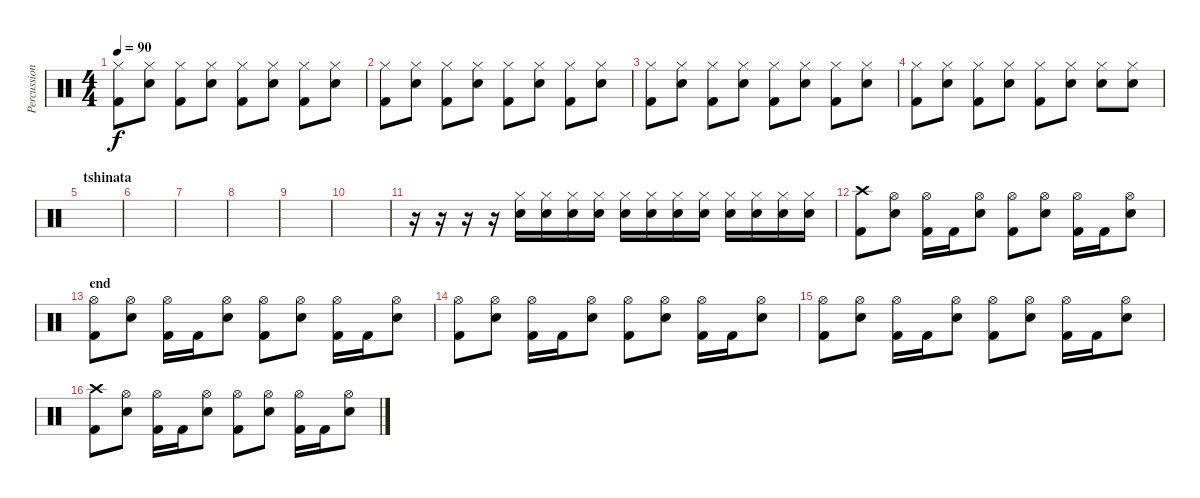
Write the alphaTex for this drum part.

\track ("Percussion" "Percussion") {instrument percussion}
\staff {score}
\articulation defaults
\ts (4 4)
\tempo 90
\clef neutral
\ks c
("Kick (hit) 2" "Hi-Hat (closed)").8{dy f} ("Snare (hit) 2" "Hi-Hat (closed)").8 ("Kick (hit) 2" "Hi-Hat (closed)").8 ("Snare (hit) 2" "Hi-Hat (closed)").8 ("Kick (hit) 2" "Hi-Hat (closed)").8 ("Snare (hit) 2" "Hi-Hat (closed)").8 ("Kick (hit) 2" "Hi-Hat (closed)").8 ("Snare (hit) 2" "Hi-Hat (closed)").8 |
("Kick (hit) 2" "Hi-Hat (closed)").8 ("Snare (hit) 2" "Hi-Hat (closed)").8 ("Kick (hit) 2" "Hi-Hat (closed)").8 ("Snare (hit) 2" "Hi-Hat (closed)").8 ("Kick (hit) 2" "Hi-Hat (closed)").8 ("Snare (hit) 2" "Hi-Hat (closed)").8 ("Kick (hit) 2" "Hi-Hat (closed)").8 ("Snare (hit) 2" "Hi-Hat (closed)").8 |
("Kick (hit) 2" "Hi-Hat (closed)").8 ("Snare (hit) 2" "Hi-Hat (closed)").8 ("Kick (hit) 2" "Hi-Hat (closed)").8 ("Snare (hit) 2" "Hi-Hat (closed)").8 ("Kick (hit) 2" "Hi-Hat (closed)").8 ("Snare (hit) 2" "Hi-Hat (closed)").8 ("Kick (hit) 2" "Hi-Hat (closed)").8 ("Snare (hit) 2" "Hi-Hat (closed)").8 |
("Kick (hit) 2" "Hi-Hat (closed)").8 ("Snare (hit) 2" "Hi-Hat (closed)").8 ("Kick (hit) 2" "Hi-Hat (closed)").8 ("Snare (hit) 2" "Hi-Hat (closed)").8 ("Kick (hit) 2" "Hi-Hat (closed)").8 ("Snare (hit) 2" "Hi-Hat (closed)").8 ("Hi-Hat (closed)" "Snare (hit) 2").8 ("Snare (hit) 2" "Hi-Hat (closed)").8 |
\section ("" "tshinata")
|
|
|
|
|
|
r.16 r.16 r.16 r.16 ("Snare (hit) 2" "Hi-Hat (closed)").16 ("Snare (hit) 2" "Hi-Hat (closed)").16 ("Snare (hit) 2" "Hi-Hat (closed)").16 ("Snare (hit) 2" "Hi-Hat (closed)").16 ("Snare (hit) 2" "Hi-Hat (closed)").16 ("Snare (hit) 2" "Hi-Hat (closed)").16 ("Snare (hit) 2" "Hi-Hat (closed)").16 ("Snare (hit) 2" "Hi-Hat (closed)").16 ("Snare (hit) 2" "Hi-Hat (closed)").16 ("Snare (hit) 2" "Hi-Hat (closed)").16 ("Snare (hit) 2" "Hi-Hat (closed)").16 ("Snare (hit) 2" "Hi-Hat (closed)").16 |
("Kick (hit) 2" "Crash high (hit)").8 ("Snare (hit) 2" "Hi-Hat (open)").8 ("Kick (hit) 2" "Hi-Hat (open)").16 "Kick (hit) 2".16 ("Snare (hit) 2" "Hi-Hat (open)").8 ("Kick (hit) 2" "Hi-Hat (open)").8 ("Snare (hit) 2" "Hi-Hat (open)").8 ("Kick (hit) 2" "Hi-Hat (open)").16 "Kick (hit) 2".16 ("Snare (hit) 2" "Hi-Hat (open)").8 |
\section ("" "end")
("Kick (hit) 2" "Hi-Hat (open)").8 ("Snare (hit) 2" "Hi-Hat (open)").8 ("Kick (hit) 2" "Hi-Hat (open)").16 "Kick (hit) 2".16 ("Snare (hit) 2" "Hi-Hat (open)").8 ("Kick (hit) 2" "Hi-Hat (open)").8 ("Snare (hit) 2" "Hi-Hat (open)").8 ("Kick (hit) 2" "Hi-Hat (open)").16 "Kick (hit) 2".16 ("Snare (hit) 2" "Hi-Hat (open)").8 |
("Kick (hit) 2" "Hi-Hat (open)").8 ("Snare (hit) 2" "Hi-Hat (open)").8 ("Kick (hit) 2" "Hi-Hat (open)").16 "Kick (hit) 2".16 ("Snare (hit) 2" "Hi-Hat (open)").8 ("Kick (hit) 2" "Hi-Hat (open)").8 ("Snare (hit) 2" "Hi-Hat (open)").8 ("Kick (hit) 2" "Hi-Hat (open)").16 "Kick (hit) 2".16 ("Snare (hit) 2" "Hi-Hat (open)").8 |
("Kick (hit) 2" "Hi-Hat (open)").8 ("Snare (hit) 2" "Hi-Hat (open)").8 ("Kick (hit) 2" "Hi-Hat (open)").16 "Kick (hit) 2".16 ("Snare (hit) 2" "Hi-Hat (open)").8 ("Kick (hit) 2" "Hi-Hat (open)").8 ("Snare (hit) 2" "Hi-Hat (open)").8 ("Kick (hit) 2" "Hi-Hat (open)").16 "Kick (hit) 2".16 ("Snare (hit) 2" "Hi-Hat (open)").8 |
("Kick (hit) 2" "Crash high (hit)").8 ("Snare (hit) 2" "Hi-Hat (open)").8 ("Kick (hit) 2" "Hi-Hat (open)").16 "Kick (hit) 2".16 ("Snare (hit) 2" "Hi-Hat (open)").8 ("Kick (hit) 2" "Hi-Hat (open)").8 ("Snare (hit) 2" "Hi-Hat (open)").8 ("Kick (hit) 2" "Hi-Hat (open)").16 "Kick (hit) 2".16 ("Snare (hit) 2" "Hi-Hat (open)").8
